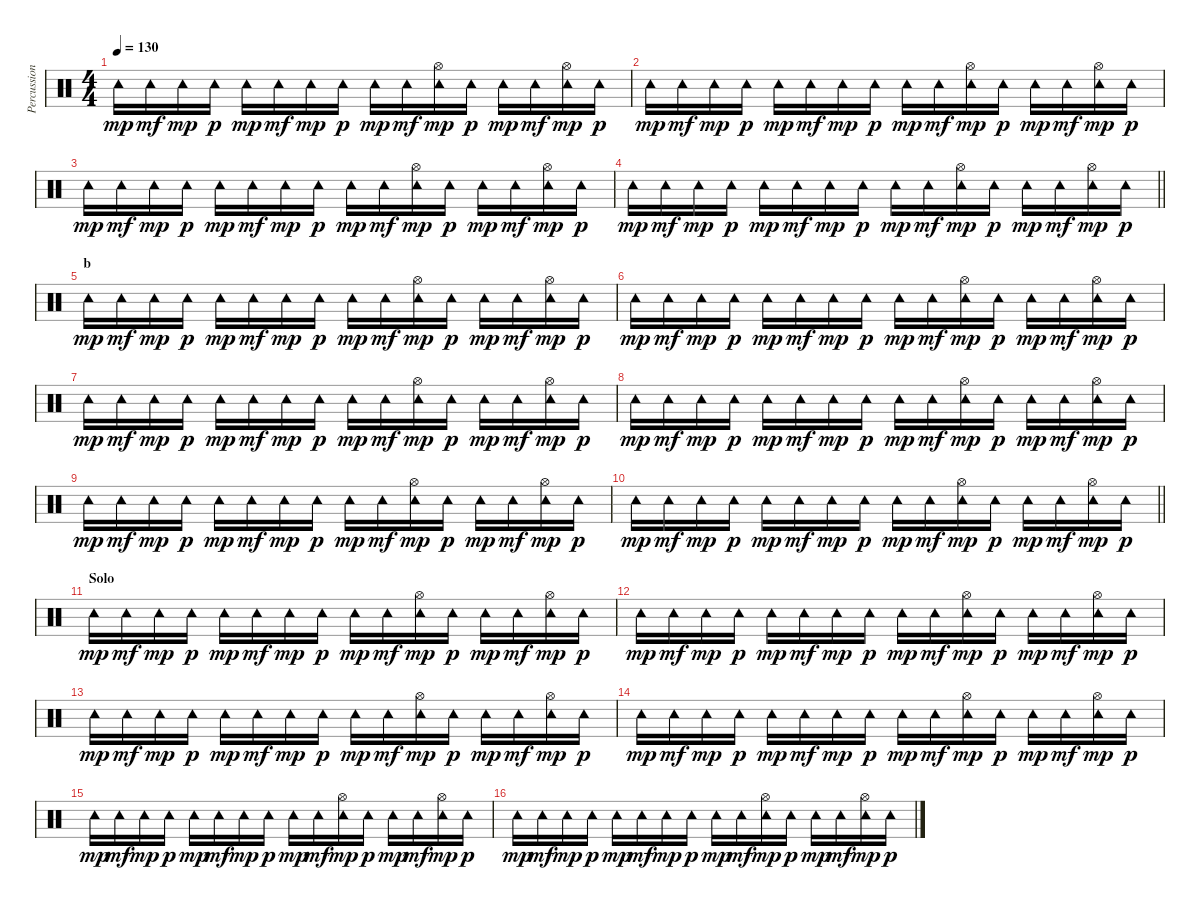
\track ("Percussion (Programmed)" "Percussion") {instrument percussion}
\staff {score}
\articulation defaults
\ts (4 4)
\tempo 130
\clef neutral
\ks c "Tambourine (hit)".16{dy mp} "Tambourine (hit)".16{dy mf} "Tambourine (hit)".16{dy mp} "Tambourine (hit)".16{dy p} "Tambourine (hit)".16{dy mp} "Tambourine (hit)".16{dy mf} "Tambourine (hit)".16{dy mp} "Tambourine (hit)".16{dy p} "Tambourine (hit)".16{dy mp} "Tambourine (hit)".16{dy mf}
("Tambourine (hit)" "Hi-Hat (open)").16{dy mp} "Tambourine (hit)".16{dy p} "Tambourine (hit)".16{dy mp} "Tambourine (hit)".16{dy mf} ("Tambourine (hit)" "Hi-Hat (open)").16{dy mp} "Tambourine (hit)".16{dy p} |
"Tambourine (hit)".16{dy mp} "Tambourine (hit)".16{dy mf} "Tambourine (hit)".16{dy mp} "Tambourine (hit)".16{dy p} "Tambourine (hit)".16{dy mp} "Tambourine (hit)".16{dy mf} "Tambourine (hit)".16{dy mp} "Tambourine (hit)".16{dy p} "Tambourine (hit)".16{dy mp} "Tambourine (hit)".16{dy mf} ("Tambourine (hit)" "Hi-Hat (open)").16{dy mp} "Tambourine (hit)".16{dy p} "Tambourine (hit)".16{dy mp} "Tambourine (hit)".16{dy mf} ("Tambourine (hit)" "Hi-Hat (open)").16{dy mp} "Tambourine (hit)".16{dy p} |
"Tambourine (hit)".16{dy mp} "Tambourine (hit)".16{dy mf} "Tambourine (hit)".16{dy mp} "Tambourine (hit)".16{dy p} "Tambourine (hit)".16{dy mp} "Tambourine (hit)".16{dy mf} "Tambourine (hit)".16{dy mp} "Tambourine (hit)".16{dy p} "Tambourine (hit)".16{dy mp} "Tambourine (hit)".16{dy mf} ("Tambourine (hit)" "Hi-Hat (open)").16{dy mp} "Tambourine (hit)".16{dy p} "Tambourine (hit)".16{dy mp} "Tambourine (hit)".16{dy mf} ("Tambourine (hit)" "Hi-Hat (open)").16{dy mp} "Tambourine (hit)".16{dy p} |
\barLineRight lightlight "Tambourine (hit)".16{dy mp} "Tambourine (hit)".16{dy mf} "Tambourine (hit)".16{dy mp} "Tambourine (hit)".16{dy p} "Tambourine (hit)".16{dy mp} "Tambourine (hit)".16{dy mf} "Tambourine (hit)".16{dy mp} "Tambourine (hit)".16{dy p} "Tambourine (hit)".16{dy mp} "Tambourine (hit)".16{dy mf}
("Tambourine (hit)" "Hi-Hat (open)").16{dy mp} "Tambourine (hit)".16{dy p} "Tambourine (hit)".16{dy mp} "Tambourine (hit)".16{dy mf} ("Tambourine (hit)" "Hi-Hat (open)").16{dy mp} "Tambourine (hit)".16{dy p} |
\section ("" "b")
"Tambourine (hit)".16{dy mp} "Tambourine (hit)".16{dy mf} "Tambourine (hit)".16{dy mp} "Tambourine (hit)".16{dy p} "Tambourine (hit)".16{dy mp} "Tambourine (hit)".16{dy mf} "Tambourine (hit)".16{dy mp} "Tambourine (hit)".16{dy p} "Tambourine (hit)".16{dy mp} "Tambourine (hit)".16{dy mf} ("Tambourine (hit)" "Hi-Hat (open)").16{dy mp} "Tambourine (hit)".16{dy p} "Tambourine (hit)".16{dy mp} "Tambourine (hit)".16{dy mf} ("Tambourine (hit)" "Hi-Hat (open)").16{dy mp} "Tambourine (hit)".16{dy p} |
"Tambourine (hit)".16{dy mp} "Tambourine (hit)".16{dy mf} "Tambourine (hit)".16{dy mp} "Tambourine (hit)".16{dy p} "Tambourine (hit)".16{dy mp} "Tambourine (hit)".16{dy mf} "Tambourine (hit)".16{dy mp} "Tambourine (hit)".16{dy p} "Tambourine (hit)".16{dy mp} "Tambourine (hit)".16{dy mf} ("Tambourine (hit)" "Hi-Hat (open)").16{dy mp} "Tambourine (hit)".16{dy p} "Tambourine (hit)".16{dy mp} "Tambourine (hit)".16{dy mf} ("Tambourine (hit)" "Hi-Hat (open)").16{dy mp} "Tambourine (hit)".16{dy p} |
"Tambourine (hit)".16{dy mp} "Tambourine (hit)".16{dy mf} "Tambourine (hit)".16{dy mp} "Tambourine (hit)".16{dy p} "Tambourine (hit)".16{dy mp} "Tambourine (hit)".16{dy mf} "Tambourine (hit)".16{dy mp} "Tambourine (hit)".16{dy p} "Tambourine (hit)".16{dy mp} "Tambourine (hit)".16{dy mf} ("Tambourine (hit)" "Hi-Hat (open)").16{dy mp} "Tambourine (hit)".16{dy p} "Tambourine (hit)".16{dy mp} "Tambourine (hit)".16{dy mf} ("Tambourine (hit)" "Hi-Hat (open)").16{dy mp} "Tambourine (hit)".16{dy p} |
"Tambourine (hit)".16{dy mp} "Tambourine (hit)".16{dy mf} "Tambourine (hit)".16{dy mp} "Tambourine (hit)".16{dy p} "Tambourine (hit)".16{dy mp} "Tambourine (hit)".16{dy mf} "Tambourine (hit)".16{dy mp} "Tambourine (hit)".16{dy p} "Tambourine (hit)".16{dy mp} "Tambourine (hit)".16{dy mf} ("Tambourine (hit)" "Hi-Hat (open)").16{dy mp} "Tambourine (hit)".16{dy p} "Tambourine (hit)".16{dy mp} "Tambourine (hit)".16{dy mf} ("Tambourine (hit)" "Hi-Hat (open)").16{dy mp} "Tambourine (hit)".16{dy p} |
"Tambourine (hit)".16{dy mp} "Tambourine (hit)".16{dy mf} "Tambourine (hit)".16{dy mp} "Tambourine (hit)".16{dy p} "Tambourine (hit)".16{dy mp} "Tambourine (hit)".16{dy mf} "Tambourine (hit)".16{dy mp} "Tambourine (hit)".16{dy p} "Tambourine (hit)".16{dy mp} "Tambourine (hit)".16{dy mf} ("Tambourine (hit)" "Hi-Hat (open)").16{dy mp} "Tambourine (hit)".16{dy p} "Tambourine (hit)".16{dy mp} "Tambourine (hit)".16{dy mf} ("Tambourine (hit)" "Hi-Hat (open)").16{dy mp} "Tambourine (hit)".16{dy p} |
\barLineRight lightlight "Tambourine (hit)".16{dy mp} "Tambourine (hit)".16{dy mf} "Tambourine (hit)".16{dy mp} "Tambourine (hit)".16{dy p} "Tambourine (hit)".16{dy mp} "Tambourine (hit)".16{dy mf} "Tambourine (hit)".16{dy mp} "Tambourine (hit)".16{dy p} "Tambourine (hit)".16{dy mp} "Tambourine (hit)".16{dy mf}
("Tambourine (hit)" "Hi-Hat (open)").16{dy mp} "Tambourine (hit)".16{dy p} "Tambourine (hit)".16{dy mp} "Tambourine (hit)".16{dy mf} ("Tambourine (hit)" "Hi-Hat (open)").16{dy mp} "Tambourine (hit)".16{dy p} |
\section ("" "Solo")
"Tambourine (hit)".16{dy mp} "Tambourine (hit)".16{dy mf} "Tambourine (hit)".16{dy mp} "Tambourine (hit)".16{dy p} "Tambourine (hit)".16{dy mp} "Tambourine (hit)".16{dy mf} "Tambourine (hit)".16{dy mp} "Tambourine (hit)".16{dy p} "Tambourine (hit)".16{dy mp} "Tambourine (hit)".16{dy mf} ("Tambourine (hit)" "Hi-Hat (open)").16{dy mp} "Tambourine (hit)".16{dy p} "Tambourine (hit)".16{dy mp} "Tambourine (hit)".16{dy mf} ("Tambourine (hit)" "Hi-Hat (open)").16{dy mp} "Tambourine (hit)".16{dy p} |
"Tambourine (hit)".16{dy mp} "Tambourine (hit)".16{dy mf} "Tambourine (hit)".16{dy mp} "Tambourine (hit)".16{dy p} "Tambourine (hit)".16{dy mp} "Tambourine (hit)".16{dy mf} "Tambourine (hit)".16{dy mp} "Tambourine (hit)".16{dy p} "Tambourine (hit)".16{dy mp} "Tambourine (hit)".16{dy mf} ("Tambourine (hit)" "Hi-Hat (open)").16{dy mp} "Tambourine (hit)".16{dy p} "Tambourine (hit)".16{dy mp} "Tambourine (hit)".16{dy mf} ("Tambourine (hit)" "Hi-Hat (open)").16{dy mp} "Tambourine (hit)".16{dy p} |
"Tambourine (hit)".16{dy mp} "Tambourine (hit)".16{dy mf} "Tambourine (hit)".16{dy mp} "Tambourine (hit)".16{dy p} "Tambourine (hit)".16{dy mp} "Tambourine (hit)".16{dy mf} "Tambourine (hit)".16{dy mp} "Tambourine (hit)".16{dy p} "Tambourine (hit)".16{dy mp} "Tambourine (hit)".16{dy mf} ("Tambourine (hit)" "Hi-Hat (open)").16{dy mp} "Tambourine (hit)".16{dy p} "Tambourine (hit)".16{dy mp} "Tambourine (hit)".16{dy mf} ("Tambourine (hit)" "Hi-Hat (open)").16{dy mp} "Tambourine (hit)".16{dy p} |
"Tambourine (hit)".16{dy mp} "Tambourine (hit)".16{dy mf} "Tambourine (hit)".16{dy mp} "Tambourine (hit)".16{dy p} "Tambourine (hit)".16{dy mp} "Tambourine (hit)".16{dy mf} "Tambourine (hit)".16{dy mp} "Tambourine (hit)".16{dy p} "Tambourine (hit)".16{dy mp} "Tambourine (hit)".16{dy mf} ("Tambourine (hit)" "Hi-Hat (open)").16{dy mp} "Tambourine (hit)".16{dy p} "Tambourine (hit)".16{dy mp} "Tambourine (hit)".16{dy mf} ("Tambourine (hit)" "Hi-Hat (open)").16{dy mp} "Tambourine (hit)".16{dy p} |
"Tambourine (hit)".16{dy mp} "Tambourine (hit)".16{dy mf} "Tambourine (hit)".16{dy mp} "Tambourine (hit)".16{dy p} "Tambourine (hit)".16{dy mp} "Tambourine (hit)".16{dy mf} "Tambourine (hit)".16{dy mp} "Tambourine (hit)".16{dy p} "Tambourine (hit)".16{dy mp} "Tambourine (hit)".16{dy mf} ("Tambourine (hit)" "Hi-Hat (open)").16{dy mp} "Tambourine (hit)".16{dy p} "Tambourine (hit)".16{dy mp} "Tambourine (hit)".16{dy mf} ("Tambourine (hit)" "Hi-Hat (open)").16{dy mp} "Tambourine (hit)".16{dy p} |
"Tambourine (hit)".16{dy mp} "Tambourine (hit)".16{dy mf} "Tambourine (hit)".16{dy mp} "Tambourine (hit)".16{dy p} "Tambourine (hit)".16{dy mp} "Tambourine (hit)".16{dy mf} "Tambourine (hit)".16{dy mp} "Tambourine (hit)".16{dy p} "Tambourine (hit)".16{dy mp} "Tambourine (hit)".16{dy mf} ("Tambourine (hit)" "Hi-Hat (open)").16{dy mp} "Tambourine (hit)".16{dy p} "Tambourine (hit)".16{dy mp} "Tambourine (hit)".16{dy mf} ("Tambourine (hit)" "Hi-Hat (open)").16{dy mp} "Tambourine (hit)".16{dy p}
